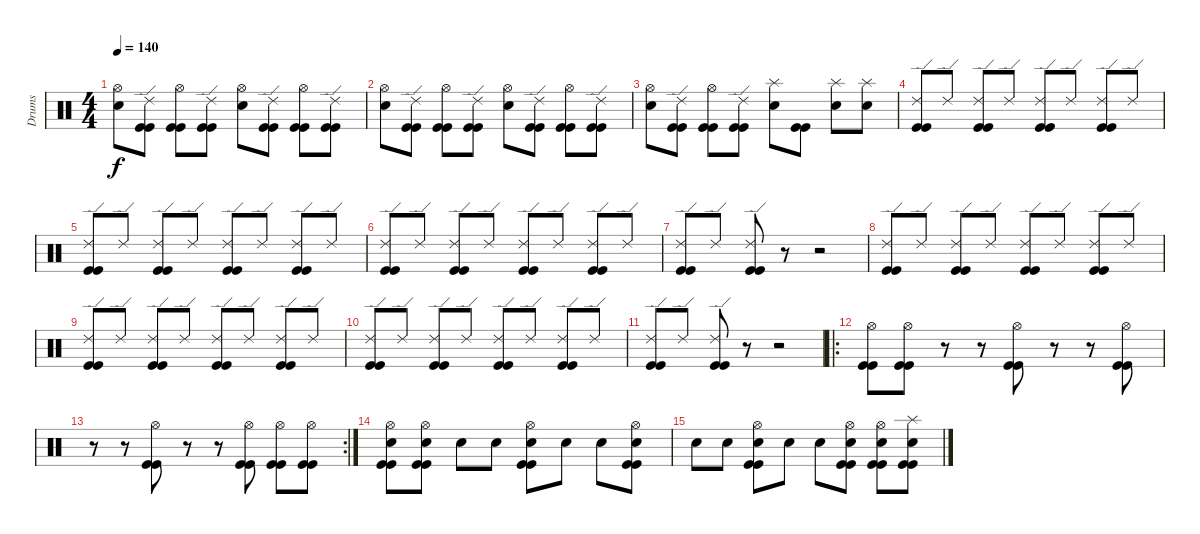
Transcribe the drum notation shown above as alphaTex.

\track ("Drums" "Drums") {instrument percussion}
\staff {score}
\articulation defaults
\ts (4 4)
\tempo 140
\clef neutral
\ks c
("Hi-Hat (open)" "Electric Snare (hit)").8{dy f} ("Ride (edge) 2" "Kick (hit)" "Kick (hit)").8 ("Hi-Hat (open)" "Kick (hit)" "Kick (hit)").8 ("Ride (edge) 2" "Kick (hit)" "Kick (hit)").8 ("Hi-Hat (open)" "Electric Snare (hit)").8 ("Ride (edge) 2" "Kick (hit)" "Kick (hit)").8 ("Hi-Hat (open)" "Kick (hit)" "Kick (hit)").8 ("Ride (edge) 2" "Kick (hit)" "Kick (hit)").8 |
("Hi-Hat (open)" "Electric Snare (hit)").8 ("Ride (edge) 2" "Kick (hit)" "Kick (hit)").8 ("Hi-Hat (open)" "Kick (hit)" "Kick (hit)").8 ("Ride (edge) 2" "Kick (hit)" "Kick (hit)").8 ("Hi-Hat (open)" "Electric Snare (hit)").8 ("Ride (edge) 2" "Kick (hit)" "Kick (hit)").8 ("Hi-Hat (open)" "Kick (hit)" "Kick (hit)").8 ("Ride (edge) 2" "Kick (hit)" "Kick (hit)").8 |
("Hi-Hat (open)" "Electric Snare (hit)").8 ("Ride (edge) 2" "Kick (hit)" "Kick (hit)").8 ("Hi-Hat (open)" "Kick (hit)" "Kick (hit)").8 ("Ride (edge) 2" "Kick (hit)" "Kick (hit)").8 ("Splash (hit)" "Electric Snare (hit)").8 ("Kick (hit)" "Kick (hit)").8 ("Splash (hit)" "Electric Snare (hit)").8 ("Splash (hit)" "Electric Snare (hit)").8 |
("Ride (edge) 2" "Kick (hit)" "Kick (hit)").8 "Ride (edge) 2".8 ("Ride (edge) 2" "Kick (hit)" "Kick (hit)").8 "Ride (edge) 2".8 ("Ride (edge) 2" "Kick (hit)" "Kick (hit)").8 "Ride (edge) 2".8 ("Ride (edge) 2" "Kick (hit)" "Kick (hit)").8 "Ride (edge) 2".8 |
("Ride (edge) 2" "Kick (hit)" "Kick (hit)").8 "Ride (edge) 2".8 ("Ride (edge) 2" "Kick (hit)" "Kick (hit)").8 "Ride (edge) 2".8 ("Ride (edge) 2" "Kick (hit)" "Kick (hit)").8 "Ride (edge) 2".8 ("Ride (edge) 2" "Kick (hit)" "Kick (hit)").8 "Ride (edge) 2".8 |
("Ride (edge) 2" "Kick (hit)" "Kick (hit)").8 "Ride (edge) 2".8 ("Ride (edge) 2" "Kick (hit)" "Kick (hit)").8 "Ride (edge) 2".8 ("Ride (edge) 2" "Kick (hit)" "Kick (hit)").8 "Ride (edge) 2".8 ("Ride (edge) 2" "Kick (hit)" "Kick (hit)").8 "Ride (edge) 2".8 |
("Ride (edge) 2" "Kick (hit)" "Kick (hit)").8 "Ride (edge) 2".8 ("Ride (edge) 2" "Kick (hit)" "Kick (hit)").8 r.8 r.2 |
("Ride (edge) 2" "Kick (hit)" "Kick (hit)").8 "Ride (edge) 2".8 ("Ride (edge) 2" "Kick (hit)" "Kick (hit)").8 "Ride (edge) 2".8 ("Ride (edge) 2" "Kick (hit)" "Kick (hit)").8 "Ride (edge) 2".8 ("Ride (edge) 2" "Kick (hit)" "Kick (hit)").8 "Ride (edge) 2".8 |
("Ride (edge) 2" "Kick (hit)" "Kick (hit)").8 "Ride (edge) 2".8 ("Ride (edge) 2" "Kick (hit)" "Kick (hit)").8 "Ride (edge) 2".8 ("Ride (edge) 2" "Kick (hit)" "Kick (hit)").8 "Ride (edge) 2".8 ("Ride (edge) 2" "Kick (hit)" "Kick (hit)").8 "Ride (edge) 2".8 |
("Ride (edge) 2" "Kick (hit)" "Kick (hit)").8 "Ride (edge) 2".8 ("Ride (edge) 2" "Kick (hit)" "Kick (hit)").8 "Ride (edge) 2".8 ("Ride (edge) 2" "Kick (hit)" "Kick (hit)").8 "Ride (edge) 2".8 ("Ride (edge) 2" "Kick (hit)" "Kick (hit)").8 "Ride (edge) 2".8 |
("Ride (edge) 2" "Kick (hit)" "Kick (hit)").8 "Ride (edge) 2".8 ("Ride (edge) 2" "Kick (hit)" "Kick (hit)").8 r.8 r.2 |
\ro
("Hi-Hat (open)" "Kick (hit)" "Kick (hit)").8 ("Hi-Hat (open)" "Kick (hit)" "Kick (hit)").8 r.8 r.8 ("Hi-Hat (open)" "Kick (hit)" "Kick (hit)").8 r.8 r.8 ("Hi-Hat (open)" "Kick (hit)" "Kick (hit)").8 |
\rc 2
r.8 r.8 ("Hi-Hat (open)" "Kick (hit)" "Kick (hit)").8 r.8 r.8 ("Hi-Hat (open)" "Kick (hit)" "Kick (hit)").8 ("Hi-Hat (open)" "Kick (hit)" "Kick (hit)").8 ("Hi-Hat (open)" "Kick (hit)" "Kick (hit)").8 |
("Hi-Hat (open)" "Electric Snare (hit)" "Kick (hit)" "Kick (hit)").8 ("Hi-Hat (open)" "Electric Snare (hit)" "Kick (hit)" "Kick (hit)").8 "Electric Snare (hit)".8 "Electric Snare (hit)".8 ("Hi-Hat (open)" "Electric Snare (hit)" "Kick (hit)" "Kick (hit)").8 "Electric Snare (hit)".8 "Electric Snare (hit)".8 ("Hi-Hat (open)" "Electric Snare (hit)" "Kick (hit)" "Kick (hit)").8 |
"Electric Snare (hit)".8 "Electric Snare (hit)".8 ("Hi-Hat (open)" "Electric Snare (hit)" "Kick (hit)" "Kick (hit)").8 "Electric Snare (hit)".8 "Electric Snare (hit)".8 ("Hi-Hat (open)" "Electric Snare (hit)" "Kick (hit)" "Kick (hit)").8 ("Hi-Hat (open)" "Electric Snare (hit)" "Kick (hit)" "Kick (hit)").8 ("Splash (hit)" "Electric Snare (hit)" "Kick (hit)" "Kick (hit)").8
